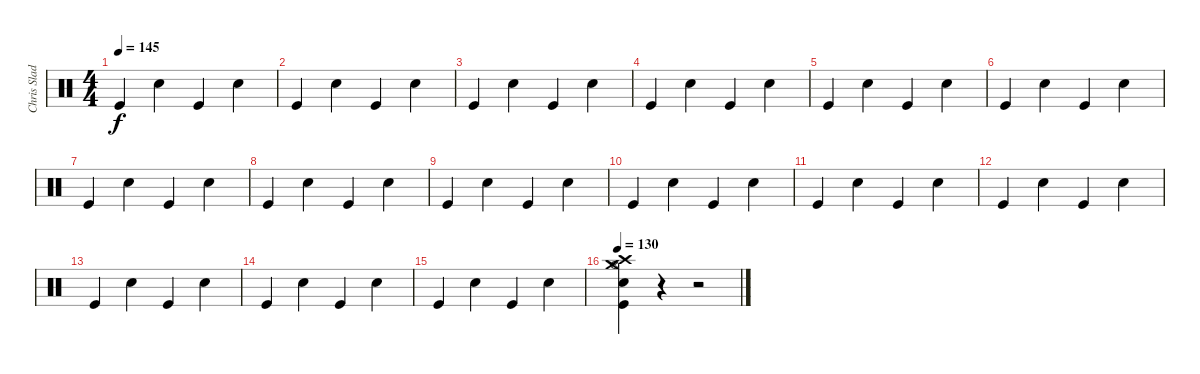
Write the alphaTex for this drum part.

\track ("Chris Slade" "Chris Slad") {instrument percussion}
\staff {score}
\articulation defaults
\ts (4 4)
\tempo 145
\clef neutral
\ks c "Kick (hit)".4{dy f} "Snare (hit) 2".4 "Kick (hit)".4 "Snare (hit) 2".4
|
"Kick (hit)".4 "Snare (hit) 2".4 "Kick (hit)".4 "Snare (hit) 2".4 |
"Kick (hit)".4 "Snare (hit) 2".4 "Kick (hit)".4 "Snare (hit) 2".4 |
"Kick (hit)".4 "Snare (hit) 2".4 "Kick (hit)".4 "Snare (hit) 2".4 |
"Kick (hit)".4 "Snare (hit) 2".4 "Kick (hit)".4 "Snare (hit) 2".4 |
"Kick (hit)".4 "Snare (hit) 2".4 "Kick (hit)".4 "Snare (hit) 2".4 |
"Kick (hit)".4 "Snare (hit) 2".4 "Kick (hit)".4 "Snare (hit) 2".4 |
"Kick (hit)".4 "Snare (hit) 2".4 "Kick (hit)".4 "Snare (hit) 2".4 |
"Kick (hit)".4 "Snare (hit) 2".4 "Kick (hit)".4 "Snare (hit) 2".4 |
"Kick (hit)".4 "Snare (hit) 2".4 "Kick (hit)".4 "Snare (hit) 2".4 |
"Kick (hit)".4 "Snare (hit) 2".4 "Kick (hit)".4 "Snare (hit) 2".4 |
"Kick (hit)".4 "Snare (hit) 2".4 "Kick (hit)".4 "Snare (hit) 2".4 |
"Kick (hit)".4 "Snare (hit) 2".4 "Kick (hit)".4 "Snare (hit) 2".4 |
"Kick (hit)".4 "Snare (hit) 2".4 "Kick (hit)".4 "Snare (hit) 2".4 |
"Kick (hit)".4 "Snare (hit) 2".4 "Kick (hit)".4 "Snare (hit) 2".4 |
\tempo 130
("Snare (hit) 2" "Kick (hit)" "Hi-Hat (open)" "Crash high (hit)" "Crash medium (hit)").4 r.4 r.2
